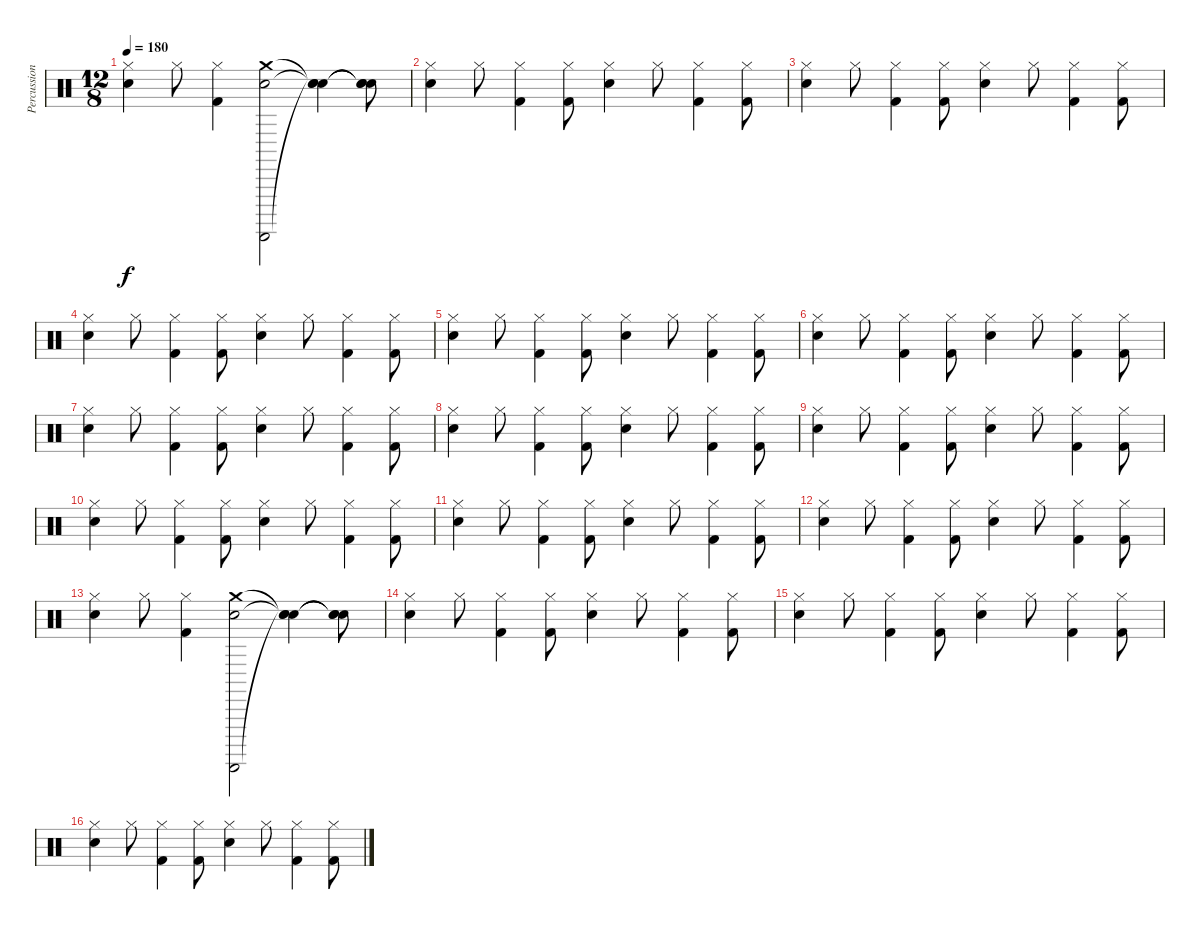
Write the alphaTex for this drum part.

\track ("Percussion" "Percussion") {instrument percussion}
\staff {score}
\articulation defaults
\ts (12 8)
\tempo 180
\clef neutral
\ks c
("Snare (hit) 2" "Hi-Hat (closed)").4{dy f} "Hi-Hat (closed)".8 ("Kick (hit) 2" "Hi-Hat (closed)").4 ("Guiro (scrap-return)" "Snare (hit) 2" "Crash medium (hit)").2 ("Snare (hit)"{t} "Snare (hit)"{t} "Snare (hit)"{t}).4 ("Snare (hit)"{t} "Snare (hit)"{t} "Snare (hit)"{t}).8 |
("Snare (hit) 2" "Hi-Hat (closed)").4 "Hi-Hat (closed)".8 ("Kick (hit) 2" "Hi-Hat (closed)").4 ("Kick (hit) 2" "Hi-Hat (closed)").8 ("Snare (hit) 2" "Hi-Hat (closed)").4 "Hi-Hat (closed)".8 ("Kick (hit) 2" "Hi-Hat (closed)").4 ("Kick (hit) 2" "Hi-Hat (closed)").8 |
("Snare (hit) 2" "Hi-Hat (closed)").4 "Hi-Hat (closed)".8 ("Kick (hit) 2" "Hi-Hat (closed)").4 ("Kick (hit) 2" "Hi-Hat (closed)").8 ("Snare (hit) 2" "Hi-Hat (closed)").4 "Hi-Hat (closed)".8 ("Kick (hit) 2" "Hi-Hat (closed)").4 ("Kick (hit) 2" "Hi-Hat (closed)").8 |
("Snare (hit) 2" "Hi-Hat (closed)").4 "Hi-Hat (closed)".8 ("Kick (hit) 2" "Hi-Hat (closed)").4 ("Kick (hit) 2" "Hi-Hat (closed)").8 ("Snare (hit) 2" "Hi-Hat (closed)").4 "Hi-Hat (closed)".8 ("Kick (hit) 2" "Hi-Hat (closed)").4 ("Kick (hit) 2" "Hi-Hat (closed)").8 |
("Snare (hit) 2" "Hi-Hat (closed)").4 "Hi-Hat (closed)".8 ("Kick (hit) 2" "Hi-Hat (closed)").4 ("Kick (hit) 2" "Hi-Hat (closed)").8 ("Snare (hit) 2" "Hi-Hat (closed)").4 "Hi-Hat (closed)".8 ("Kick (hit) 2" "Hi-Hat (closed)").4 ("Kick (hit) 2" "Hi-Hat (closed)").8 |
("Snare (hit) 2" "Hi-Hat (closed)").4 "Hi-Hat (closed)".8 ("Kick (hit) 2" "Hi-Hat (closed)").4 ("Kick (hit) 2" "Hi-Hat (closed)").8 ("Snare (hit) 2" "Hi-Hat (closed)").4 "Hi-Hat (closed)".8 ("Kick (hit) 2" "Hi-Hat (closed)").4 ("Kick (hit) 2" "Hi-Hat (closed)").8 |
("Snare (hit) 2" "Hi-Hat (closed)").4 "Hi-Hat (closed)".8 ("Kick (hit) 2" "Hi-Hat (closed)").4 ("Kick (hit) 2" "Hi-Hat (closed)").8 ("Snare (hit) 2" "Hi-Hat (closed)").4 "Hi-Hat (closed)".8 ("Kick (hit) 2" "Hi-Hat (closed)").4 ("Kick (hit) 2" "Hi-Hat (closed)").8 |
("Snare (hit) 2" "Hi-Hat (closed)").4 "Hi-Hat (closed)".8 ("Kick (hit) 2" "Hi-Hat (closed)").4 ("Kick (hit) 2" "Hi-Hat (closed)").8 ("Snare (hit) 2" "Hi-Hat (closed)").4 "Hi-Hat (closed)".8 ("Kick (hit) 2" "Hi-Hat (closed)").4 ("Kick (hit) 2" "Hi-Hat (closed)").8 |
("Snare (hit) 2" "Hi-Hat (closed)").4 "Hi-Hat (closed)".8 ("Kick (hit) 2" "Hi-Hat (closed)").4 ("Kick (hit) 2" "Hi-Hat (closed)").8 ("Snare (hit) 2" "Hi-Hat (closed)").4 "Hi-Hat (closed)".8 ("Kick (hit) 2" "Hi-Hat (closed)").4 ("Kick (hit) 2" "Hi-Hat (closed)").8 |
("Snare (hit) 2" "Hi-Hat (closed)").4 "Hi-Hat (closed)".8 ("Kick (hit) 2" "Hi-Hat (closed)").4 ("Kick (hit) 2" "Hi-Hat (closed)").8 ("Snare (hit) 2" "Hi-Hat (closed)").4 "Hi-Hat (closed)".8 ("Kick (hit) 2" "Hi-Hat (closed)").4 ("Kick (hit) 2" "Hi-Hat (closed)").8 |
("Snare (hit) 2" "Hi-Hat (closed)").4 "Hi-Hat (closed)".8 ("Kick (hit) 2" "Hi-Hat (closed)").4 ("Kick (hit) 2" "Hi-Hat (closed)").8 ("Snare (hit) 2" "Hi-Hat (closed)").4 "Hi-Hat (closed)".8 ("Kick (hit) 2" "Hi-Hat (closed)").4 ("Kick (hit) 2" "Hi-Hat (closed)").8 |
("Snare (hit) 2" "Hi-Hat (closed)").4 "Hi-Hat (closed)".8 ("Kick (hit) 2" "Hi-Hat (closed)").4 ("Kick (hit) 2" "Hi-Hat (closed)").8 ("Snare (hit) 2" "Hi-Hat (closed)").4 "Hi-Hat (closed)".8 ("Kick (hit) 2" "Hi-Hat (closed)").4 ("Kick (hit) 2" "Hi-Hat (closed)").8 |
("Snare (hit) 2" "Hi-Hat (closed)").4 "Hi-Hat (closed)".8 ("Kick (hit) 2" "Hi-Hat (closed)").4 ("Guiro (scrap-return)" "Snare (hit) 2" "Crash medium (hit)").2 ("Snare (hit)"{t} "Snare (hit)"{t} "Snare (hit)"{t}).4 ("Snare (hit)"{t} "Snare (hit)"{t} "Snare (hit)"{t}).8 |
("Snare (hit) 2" "Hi-Hat (closed)").4 "Hi-Hat (closed)".8 ("Kick (hit) 2" "Hi-Hat (closed)").4 ("Kick (hit) 2" "Hi-Hat (closed)").8 ("Snare (hit) 2" "Hi-Hat (closed)").4 "Hi-Hat (closed)".8 ("Kick (hit) 2" "Hi-Hat (closed)").4 ("Kick (hit) 2" "Hi-Hat (closed)").8 |
("Snare (hit) 2" "Hi-Hat (closed)").4 "Hi-Hat (closed)".8 ("Kick (hit) 2" "Hi-Hat (closed)").4 ("Kick (hit) 2" "Hi-Hat (closed)").8 ("Snare (hit) 2" "Hi-Hat (closed)").4 "Hi-Hat (closed)".8 ("Kick (hit) 2" "Hi-Hat (closed)").4 ("Kick (hit) 2" "Hi-Hat (closed)").8 |
("Snare (hit) 2" "Hi-Hat (closed)").4 "Hi-Hat (closed)".8 ("Kick (hit) 2" "Hi-Hat (closed)").4 ("Kick (hit) 2" "Hi-Hat (closed)").8 ("Snare (hit) 2" "Hi-Hat (closed)").4 "Hi-Hat (closed)".8 ("Kick (hit) 2" "Hi-Hat (closed)").4 ("Kick (hit) 2" "Hi-Hat (closed)").8
